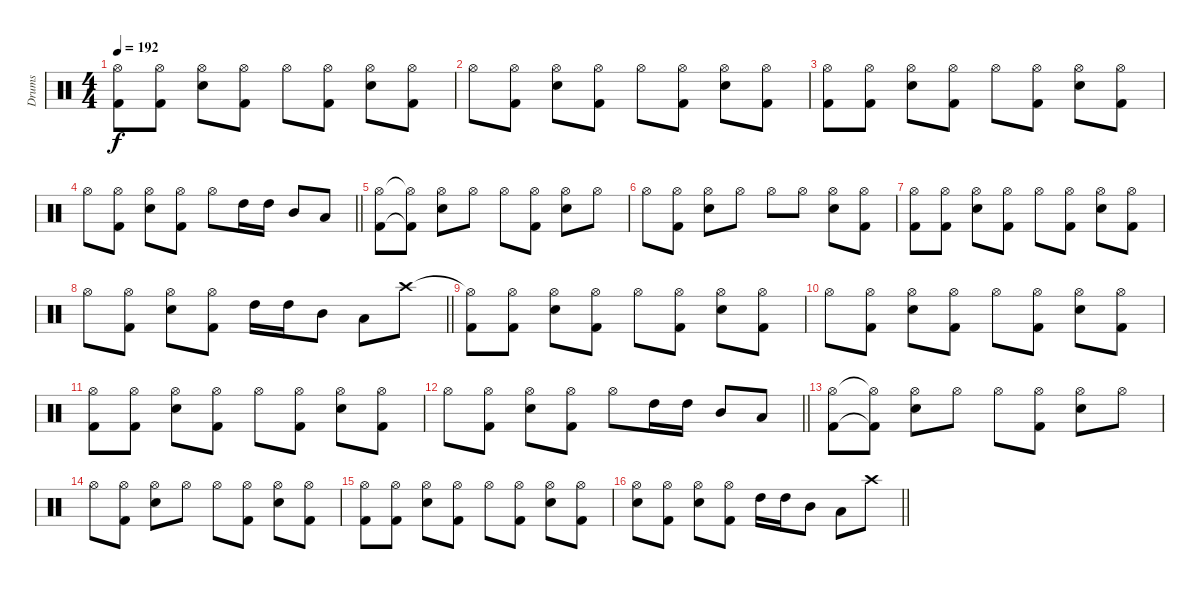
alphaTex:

\track ("Drums" "Drums") {instrument percussion}
\staff {score}
\articulation defaults
\ts (4 4)
\section ("" "")
\tempo 192
\clef neutral
\ks c
("Hi-Hat (open)" "Kick (hit) 2").8{dy f} ("Hi-Hat (open)" "Kick (hit) 2").8 ("Hi-Hat (open)" "Electric Snare (hit)").8 ("Hi-Hat (open)" "Kick (hit) 2").8 "Hi-Hat (open)".8 ("Hi-Hat (open)" "Kick (hit) 2").8 ("Hi-Hat (open)" "Electric Snare (hit)").8 ("Hi-Hat (open)" "Kick (hit) 2").8 |
"Hi-Hat (open)".8 ("Hi-Hat (open)" "Kick (hit) 2").8 ("Hi-Hat (open)" "Electric Snare (hit)").8 ("Hi-Hat (open)" "Kick (hit) 2").8 "Hi-Hat (open)".8 ("Hi-Hat (open)" "Kick (hit) 2").8 ("Hi-Hat (open)" "Electric Snare (hit)").8 ("Hi-Hat (open)" "Kick (hit) 2").8 |
("Hi-Hat (open)" "Kick (hit) 2").8 ("Hi-Hat (open)" "Kick (hit) 2").8 ("Hi-Hat (open)" "Electric Snare (hit)").8 ("Hi-Hat (open)" "Kick (hit) 2").8 "Hi-Hat (open)".8 ("Hi-Hat (open)" "Kick (hit) 2").8 ("Hi-Hat (open)" "Electric Snare (hit)").8 ("Hi-Hat (open)" "Kick (hit) 2").8 |
\barLineRight lightlight "Hi-Hat (open)".8
("Hi-Hat (open)" "Kick (hit) 2").8 ("Hi-Hat (open)" "Electric Snare (hit)").8 ("Hi-Hat (open)" "Kick (hit) 2").8 "Hi-Hat (open)".8 "High Tom (hit)".16 "High Tom (hit)".16 "Mid Tom (hit)".8 "Low Tom (hit)".8 |
("Hi-Hat (open)" "Kick (hit) 2").8 ("Hi-Hat (open)"{t} "Kick (hit) 2"{t}).8 ("Hi-Hat (open)" "Electric Snare (hit)").8 "Hi-Hat (open)".8 "Hi-Hat (open)".8 ("Hi-Hat (open)" "Kick (hit) 2").8 ("Hi-Hat (open)" "Electric Snare (hit)").8 "Hi-Hat (open)".8 |
"Hi-Hat (open)".8 ("Hi-Hat (open)" "Kick (hit) 2").8 ("Hi-Hat (open)" "Electric Snare (hit)").8 "Hi-Hat (open)".8 "Hi-Hat (open)".8 "Hi-Hat (open)".8 ("Hi-Hat (open)" "Electric Snare (hit)").8 ("Hi-Hat (open)" "Kick (hit) 2").8 |
("Hi-Hat (open)" "Kick (hit) 2").8 ("Hi-Hat (open)" "Kick (hit) 2").8 ("Hi-Hat (open)" "Electric Snare (hit)").8 ("Hi-Hat (open)" "Kick (hit) 2").8 "Hi-Hat (open)".8 ("Hi-Hat (open)" "Kick (hit) 2").8 ("Hi-Hat (open)" "Electric Snare (hit)").8 ("Hi-Hat (open)" "Kick (hit) 2").8 |
\barLineRight lightlight "Hi-Hat (open)".8
("Hi-Hat (open)" "Kick (hit) 2").8 ("Hi-Hat (open)" "Electric Snare (hit)").8 ("Hi-Hat (open)" "Kick (hit) 2").8 "High Tom (hit)".16 "High Tom (hit)".16 "Mid Tom (hit)".8 "Low Tom (hit)".8 "Crash high (hit)".8 |
("Hi-Hat (open)"{t} "Kick (hit) 2").8 ("Hi-Hat (open)" "Kick (hit) 2").8 ("Hi-Hat (open)" "Electric Snare (hit)").8 ("Hi-Hat (open)" "Kick (hit) 2").8 "Hi-Hat (open)".8 ("Hi-Hat (open)" "Kick (hit) 2").8 ("Hi-Hat (open)" "Electric Snare (hit)").8 ("Hi-Hat (open)" "Kick (hit) 2").8 |
"Hi-Hat (open)".8 ("Hi-Hat (open)" "Kick (hit) 2").8 ("Hi-Hat (open)" "Electric Snare (hit)").8 ("Hi-Hat (open)" "Kick (hit) 2").8 "Hi-Hat (open)".8 ("Hi-Hat (open)" "Kick (hit) 2").8 ("Hi-Hat (open)" "Electric Snare (hit)").8 ("Hi-Hat (open)" "Kick (hit) 2").8 |
("Hi-Hat (open)" "Kick (hit) 2").8 ("Hi-Hat (open)" "Kick (hit) 2").8 ("Hi-Hat (open)" "Electric Snare (hit)").8 ("Hi-Hat (open)" "Kick (hit) 2").8 "Hi-Hat (open)".8 ("Hi-Hat (open)" "Kick (hit) 2").8 ("Hi-Hat (open)" "Electric Snare (hit)").8 ("Hi-Hat (open)" "Kick (hit) 2").8 |
\barLineRight lightlight "Hi-Hat (open)".8
("Hi-Hat (open)" "Kick (hit) 2").8 ("Hi-Hat (open)" "Electric Snare (hit)").8 ("Hi-Hat (open)" "Kick (hit) 2").8 "Hi-Hat (open)".8 "High Tom (hit)".16 "High Tom (hit)".16 "Mid Tom (hit)".8 "Low Tom (hit)".8 |
("Hi-Hat (open)" "Kick (hit) 2").8 ("Hi-Hat (open)"{t} "Kick (hit) 2"{t}).8 ("Hi-Hat (open)" "Electric Snare (hit)").8 "Hi-Hat (open)".8 "Hi-Hat (open)".8 ("Hi-Hat (open)" "Kick (hit) 2").8 ("Hi-Hat (open)" "Electric Snare (hit)").8 "Hi-Hat (open)".8 |
"Hi-Hat (open)".8 ("Hi-Hat (open)" "Kick (hit) 2").8 ("Hi-Hat (open)" "Electric Snare (hit)").8 "Hi-Hat (open)".8 "Hi-Hat (open)".8 ("Hi-Hat (open)" "Kick (hit) 2").8 ("Hi-Hat (open)" "Electric Snare (hit)").8 ("Hi-Hat (open)" "Kick (hit) 2").8 |
("Hi-Hat (open)" "Kick (hit) 2").8 ("Hi-Hat (open)" "Kick (hit) 2").8 ("Hi-Hat (open)" "Electric Snare (hit)").8 ("Hi-Hat (open)" "Kick (hit) 2").8 "Hi-Hat (open)".8 ("Hi-Hat (open)" "Kick (hit) 2").8 ("Hi-Hat (open)" "Electric Snare (hit)").8 ("Hi-Hat (open)" "Kick (hit) 2").8 |
\barLineRight lightlight
("Hi-Hat (open)" "Electric Snare (hit)").8 ("Hi-Hat (open)" "Kick (hit) 2").8 ("Hi-Hat (open)" "Electric Snare (hit)").8 ("Hi-Hat (open)" "Kick (hit) 2").8 "High Tom (hit)".16 "High Tom (hit)".16 "Mid Tom (hit)".8 "Low Tom (hit)".8 "Crash high (hit)".8
